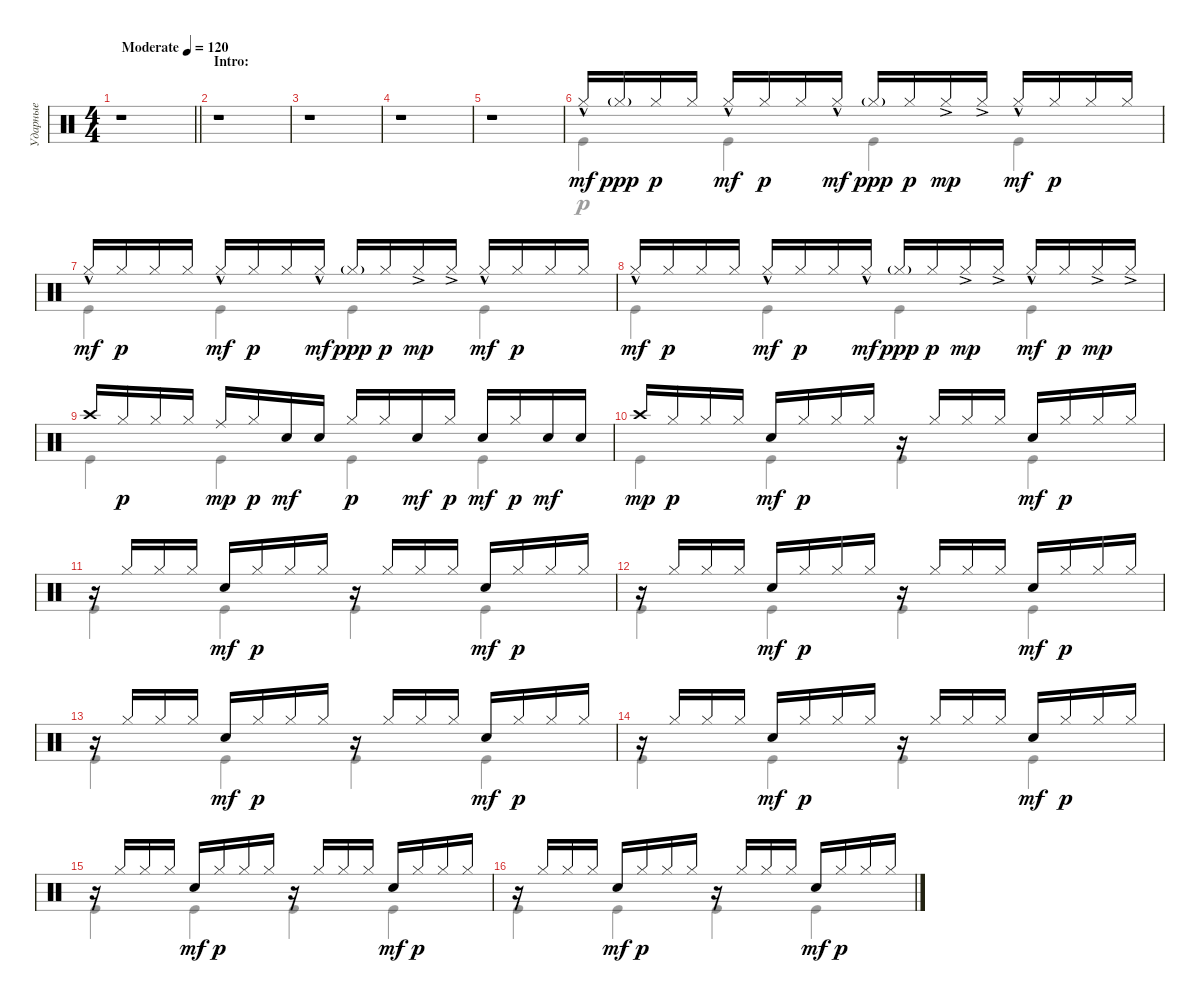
\track ("Ударные" "Ударные") {instrument percussion}
\staff {score}
\articulation defaults
\voice
\ts (4 4)
\tempo (120 "Moderate")
\clef neutral
\barLineRight lightlight
\ks c
r.1{dy mf} |
\section ("" "Intro:")
r.1 |
r.1 |
r.1 |
r.1 |
"Hi-Hat (closed)"{hac}.16 "Hi-Hat (closed)"{g}.16{dy ppp} "Hi-Hat (closed)".16{dy p} "Hi-Hat (closed)".16 "Hi-Hat (closed)"{hac}.16{dy mf} "Hi-Hat (closed)".16{dy p} "Hi-Hat (closed)".16 "Hi-Hat (closed)"{hac}.16{dy mf} "Hi-Hat (closed)"{g}.16{dy ppp} "Hi-Hat (closed)".16{dy p} "Hi-Hat (closed)"{ac}.16{dy mp} "Hi-Hat (closed)"{ac}.16 "Hi-Hat (closed)"{hac}.16{dy mf} "Hi-Hat (closed)".16{dy p} "Hi-Hat (closed)".16 "Hi-Hat (closed)".16 |
"Hi-Hat (closed)"{hac}.16{dy mf} "Hi-Hat (closed)".16{dy p} "Hi-Hat (closed)".16 "Hi-Hat (closed)".16 "Hi-Hat (closed)"{hac}.16{dy mf} "Hi-Hat (closed)".16{dy p} "Hi-Hat (closed)".16 "Hi-Hat (closed)"{hac}.16{dy mf} "Hi-Hat (closed)"{g}.16{dy ppp} "Hi-Hat (closed)".16{dy p} "Hi-Hat (closed)"{ac}.16{dy mp} "Hi-Hat (closed)"{ac}.16 "Hi-Hat (closed)"{hac}.16{dy mf} "Hi-Hat (closed)".16{dy p} "Hi-Hat (closed)".16 "Hi-Hat (closed)".16 |
"Hi-Hat (closed)"{hac}.16{dy mf} "Hi-Hat (closed)".16{dy p} "Hi-Hat (closed)".16 "Hi-Hat (closed)".16 "Hi-Hat (closed)"{hac}.16{dy mf} "Hi-Hat (closed)".16{dy p} "Hi-Hat (closed)".16 "Hi-Hat (closed)"{hac}.16{dy mf} "Hi-Hat (closed)"{g}.16{dy ppp} "Hi-Hat (closed)".16{dy p} "Hi-Hat (closed)"{ac}.16{dy mp} "Hi-Hat (closed)"{ac}.16 "Hi-Hat (closed)"{hac}.16{dy mf} "Hi-Hat (closed)".16{dy p} "Hi-Hat (closed)"{ac}.16{dy mp} "Hi-Hat (closed)"{ac}.16 |
"Crash high (hit)".16 "Hi-Hat (closed)".16{dy p} "Hi-Hat (closed)".16 "Hi-Hat (closed)".16 "Ride (middle)".16{dy mp} "Hi-Hat (closed)".16{dy p} "Snare (hit) 2".16{dy mf} "Snare (hit) 2".16 "Hi-Hat (closed)".16{dy p} "Hi-Hat (closed)".16 "Snare (hit) 2".16{dy mf} "Hi-Hat (closed)".16{dy p} "Snare (hit) 2".16{dy mf} "Hi-Hat (closed)".16{dy p} "Snare (hit) 2".16{dy mf} "Snare (hit) 2".16 |
"Crash high (hit)".16{dy mp} "Hi-Hat (closed)".16{dy p} "Hi-Hat (closed)".16 "Hi-Hat (closed)".16 "Snare (hit) 2".16{dy mf} "Hi-Hat (closed)".16{dy p} "Hi-Hat (closed)".16 "Hi-Hat (closed)".16 r.16 "Hi-Hat (closed)".16 "Hi-Hat (closed)".16 "Hi-Hat (closed)".16 "Snare (hit) 2".16{dy mf} "Hi-Hat (closed)".16{dy p} "Hi-Hat (closed)".16 "Hi-Hat (closed)".16 |
r.16 "Hi-Hat (closed)".16 "Hi-Hat (closed)".16 "Hi-Hat (closed)".16 "Snare (hit) 2".16{dy mf} "Hi-Hat (closed)".16{dy p} "Hi-Hat (closed)".16 "Hi-Hat (closed)".16 r.16 "Hi-Hat (closed)".16 "Hi-Hat (closed)".16 "Hi-Hat (closed)".16 "Snare (hit) 2".16{dy mf} "Hi-Hat (closed)".16{dy p} "Hi-Hat (closed)".16 "Hi-Hat (closed)".16 |
r.16 "Hi-Hat (closed)".16 "Hi-Hat (closed)".16 "Hi-Hat (closed)".16 "Snare (hit) 2".16{dy mf} "Hi-Hat (closed)".16{dy p} "Hi-Hat (closed)".16 "Hi-Hat (closed)".16 r.16 "Hi-Hat (closed)".16 "Hi-Hat (closed)".16 "Hi-Hat (closed)".16 "Snare (hit) 2".16{dy mf} "Hi-Hat (closed)".16{dy p} "Hi-Hat (closed)".16 "Hi-Hat (closed)".16 |
r.16 "Hi-Hat (closed)".16 "Hi-Hat (closed)".16 "Hi-Hat (closed)".16 "Snare (hit) 2".16{dy mf} "Hi-Hat (closed)".16{dy p} "Hi-Hat (closed)".16 "Hi-Hat (closed)".16 r.16 "Hi-Hat (closed)".16 "Hi-Hat (closed)".16 "Hi-Hat (closed)".16 "Snare (hit) 2".16{dy mf} "Hi-Hat (closed)".16{dy p} "Hi-Hat (closed)".16 "Hi-Hat (closed)".16 |
r.16 "Hi-Hat (closed)".16 "Hi-Hat (closed)".16 "Hi-Hat (closed)".16 "Snare (hit) 2".16{dy mf} "Hi-Hat (closed)".16{dy p} "Hi-Hat (closed)".16 "Hi-Hat (closed)".16 r.16 "Hi-Hat (closed)".16 "Hi-Hat (closed)".16 "Hi-Hat (closed)".16 "Snare (hit) 2".16{dy mf} "Hi-Hat (closed)".16{dy p} "Hi-Hat (closed)".16 "Hi-Hat (closed)".16 |
r.16 "Hi-Hat (closed)".16 "Hi-Hat (closed)".16 "Hi-Hat (closed)".16 "Snare (hit) 2".16{dy mf} "Hi-Hat (closed)".16{dy p} "Hi-Hat (closed)".16 "Hi-Hat (closed)".16 r.16 "Hi-Hat (closed)".16 "Hi-Hat (closed)".16 "Hi-Hat (closed)".16 "Snare (hit) 2".16{dy mf} "Hi-Hat (closed)".16{dy p} "Hi-Hat (closed)".16 "Hi-Hat (closed)".16 |
r.16 "Hi-Hat (closed)".16 "Hi-Hat (closed)".16 "Hi-Hat (closed)".16 "Snare (hit) 2".16{dy mf} "Hi-Hat (closed)".16{dy p} "Hi-Hat (closed)".16 "Hi-Hat (closed)".16 r.16 "Hi-Hat (closed)".16 "Hi-Hat (closed)".16 "Hi-Hat (closed)".16 "Snare (hit) 2".16{dy mf} "Hi-Hat (closed)".16{dy p} "Hi-Hat (closed)".16 "Hi-Hat (closed)".16
\voice
\clef neutral
\ottava regular
\simile none
\barLineRight lightlight
\ks c
|
|
|
|
|
"Kick (hit)".4 "Kick (hit)".4 "Kick (hit)".4 "Kick (hit)".4 |
"Kick (hit)".4 "Kick (hit)".4 "Kick (hit)".4 "Kick (hit)".4 |
"Kick (hit)".4 "Kick (hit)".4 "Kick (hit)".4 "Kick (hit)".4 |
"Kick (hit)".4 "Kick (hit)".4 "Kick (hit)".4 "Kick (hit)".4 |
"Kick (hit)".4 "Kick (hit)".4 "Kick (hit)".4 "Kick (hit)".4 |
"Kick (hit)".4 "Kick (hit)".4 "Kick (hit)".4 "Kick (hit)".4 |
"Kick (hit)".4 "Kick (hit)".4 "Kick (hit)".4 "Kick (hit)".4 |
"Kick (hit)".4 "Kick (hit)".4 "Kick (hit)".4 "Kick (hit)".4 |
"Kick (hit)".4 "Kick (hit)".4 "Kick (hit)".4 "Kick (hit)".4 |
"Kick (hit)".4 "Kick (hit)".4 "Kick (hit)".4 "Kick (hit)".4 |
"Kick (hit)".4 "Kick (hit)".4 "Kick (hit)".4 "Kick (hit)".4
